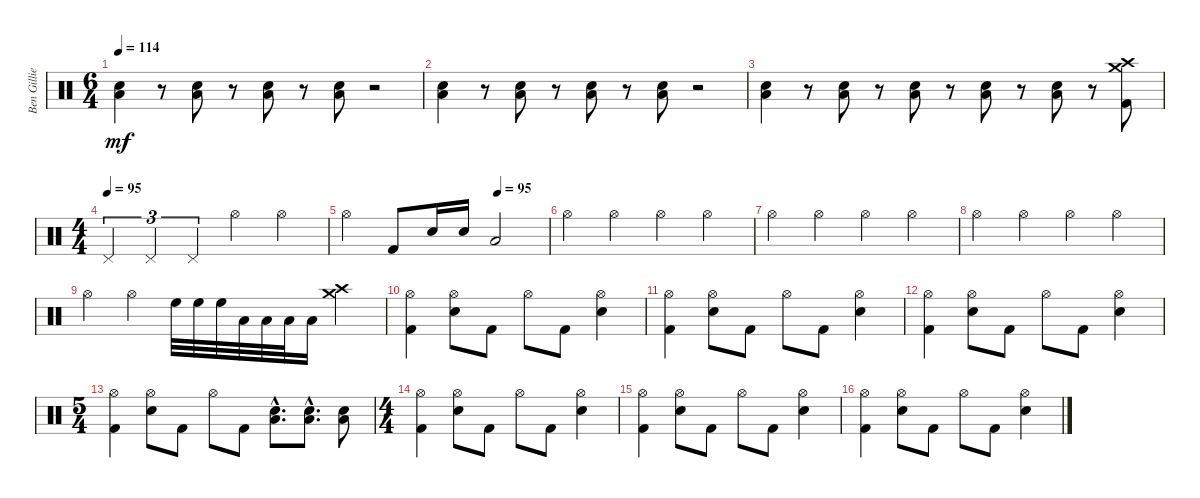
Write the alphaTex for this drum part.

\track ("Ben Gillies" "Ben Gillie") {instrument percussion}
\staff {score}
\articulation defaults
\ts (6 4)
\tempo 114
\clef neutral
\ks c
("Low Floor Tom (hit)" "Electric Snare (hit)").4{dy mf} r.8 ("Low Floor Tom (hit)" "Electric Snare (hit)").8 r.8 ("Low Floor Tom (hit)" "Electric Snare (hit)").8 r.8 ("Low Floor Tom (hit)" "Electric Snare (hit)").8 r.2 |
("Low Floor Tom (hit)" "Electric Snare (hit)").4 r.8 ("Low Floor Tom (hit)" "Electric Snare (hit)").8 r.8 ("Low Floor Tom (hit)" "Electric Snare (hit)").8 r.8 ("Low Floor Tom (hit)" "Electric Snare (hit)").8 r.2 |
("Low Floor Tom (hit)" "Electric Snare (hit)").4 r.8 ("Low Floor Tom (hit)" "Electric Snare (hit)").8 r.8 ("Low Floor Tom (hit)" "Electric Snare (hit)").8 r.8 ("Low Floor Tom (hit)" "Electric Snare (hit)").8 r.8 ("Low Floor Tom (hit)" "Electric Snare (hit)").8 r.8 ("Crash high (hit)" "Crash medium (hit)" "Kick (hit) 2").8 |
\ts (4 4)
\tempo (95)
"Pedal Hi-Hat (hit)".4{tu (3 2)} "Pedal Hi-Hat (hit)".4{tu (3 2)} "Pedal Hi-Hat (hit)".4{tu (3 2)} "Hi-Hat (open)".4 "Hi-Hat (open)".4 |
\tempo (95 0.75)
"Hi-Hat (open)".4 "Kick (hit) 2".8 "Electric Snare (hit)".16 "Electric Snare (hit)".16 "Low Floor Tom (hit)".2 |
"Hi-Hat (open)".4 "Hi-Hat (open)".4 "Hi-Hat (open)".4 "Hi-Hat (open)".4 |
"Hi-Hat (open)".4 "Hi-Hat (open)".4 "Hi-Hat (open)".4 "Hi-Hat (open)".4 |
"Hi-Hat (open)".4 "Hi-Hat (open)".4 "Hi-Hat (open)".4 "Hi-Hat (open)".4 |
"Hi-Hat (open)".4 "Hi-Hat (open)".4 "High Floor Tom (hit)".32 "High Floor Tom (hit)".32 "High Floor Tom (hit)".32 "Low Tom (hit)".32 "Low Tom (hit)".32 "Low Tom (hit)".32 "Low Floor Tom (hit)".16 ("Crash high (hit)" "Crash medium (hit)").4 |
("Hi-Hat (open)" "Kick (hit) 2").4 ("Hi-Hat (open)" "Electric Snare (hit)").8 "Kick (hit) 2".8 "Hi-Hat (open)".8 "Kick (hit) 2".8 ("Hi-Hat (open)" "Electric Snare (hit)").4 |
("Hi-Hat (open)" "Kick (hit) 2").4 ("Hi-Hat (open)" "Electric Snare (hit)").8 "Kick (hit) 2".8 "Hi-Hat (open)".8 "Kick (hit) 2".8 ("Hi-Hat (open)" "Electric Snare (hit)").4 |
("Hi-Hat (open)" "Kick (hit) 2").4 ("Hi-Hat (open)" "Electric Snare (hit)").8 "Kick (hit) 2".8 "Hi-Hat (open)".8 "Kick (hit) 2".8 ("Hi-Hat (open)" "Electric Snare (hit)").4 |
\ts (5 4)
("Hi-Hat (open)" "Kick (hit) 2").4 ("Hi-Hat (open)" "Electric Snare (hit)").8 "Kick (hit) 2".8 "Hi-Hat (open)".8 "Kick (hit) 2".8 ("Low Floor Tom (hit)"{hac} "Electric Snare (hit)"{hac}).8{d} ("Low Floor Tom (hit)"{hac} "Electric Snare (hit)"{hac}).8{d} ("Low Floor Tom (hit)" "Electric Snare (hit)").8 |
\ts (4 4)
("Hi-Hat (open)" "Kick (hit) 2").4 ("Hi-Hat (open)" "Electric Snare (hit)").8 "Kick (hit) 2".8 "Hi-Hat (open)".8 "Kick (hit) 2".8 ("Hi-Hat (open)" "Electric Snare (hit)").4 |
("Hi-Hat (open)" "Kick (hit) 2").4 ("Hi-Hat (open)" "Electric Snare (hit)").8 "Kick (hit) 2".8 "Hi-Hat (open)".8 "Kick (hit) 2".8 ("Hi-Hat (open)" "Electric Snare (hit)").4 |
("Hi-Hat (open)" "Kick (hit) 2").4 ("Hi-Hat (open)" "Electric Snare (hit)").8 "Kick (hit) 2".8 "Hi-Hat (open)".8 "Kick (hit) 2".8 ("Hi-Hat (open)" "Electric Snare (hit)").4
